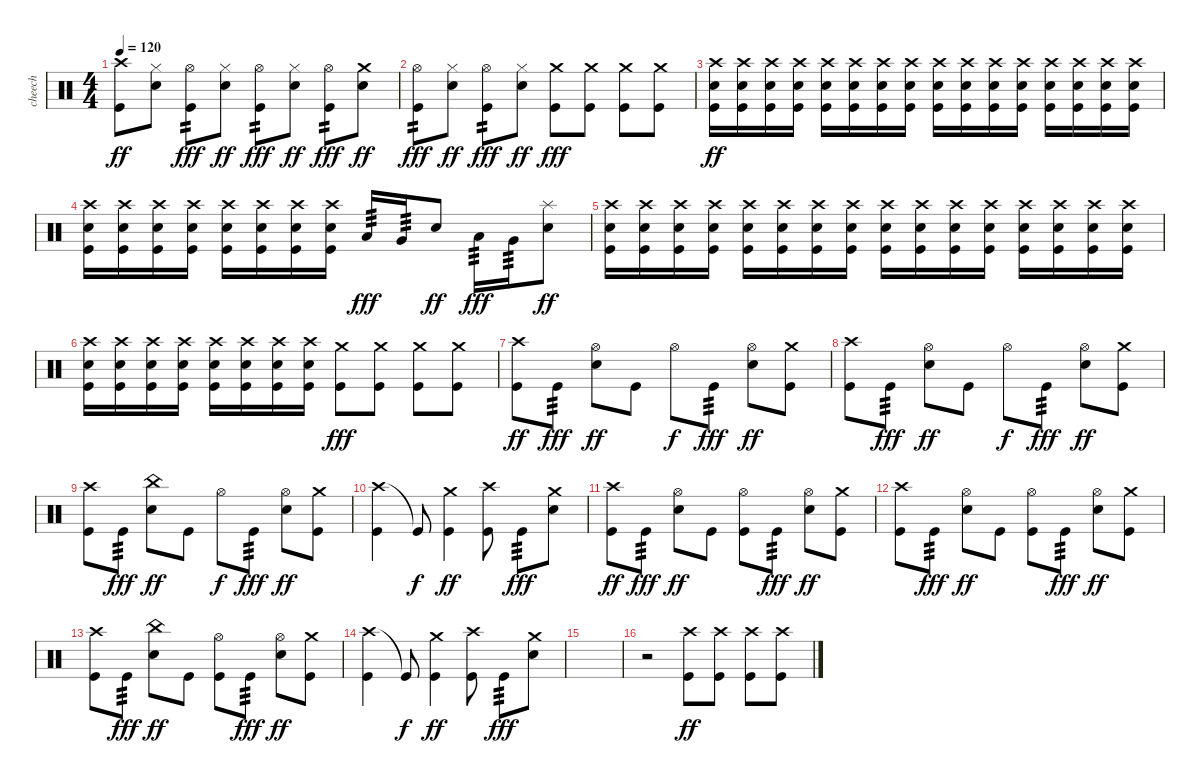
\track ("cheech" "cheech") {instrument percussion}
\staff {score}
\articulation defaults
\ts (4 4)
\tempo 120
\clef neutral
\ks c
("Crash high (hit)" "Kick (hit)").8{dy ff} ("Hi-Hat (closed)" "Electric Snare (hit)").8 ("Hi-Hat (open)" "Kick (hit)").8{tp 2 dy fff} ("Hi-Hat (closed)" "Electric Snare (hit)").8{dy ff} ("Hi-Hat (open)" "Kick (hit)").8{tp 2 dy fff} ("Hi-Hat (closed)" "Electric Snare (hit)").8{dy ff} ("Hi-Hat (open)" "Kick (hit)").8{tp 2 dy fff} ("Crash medium (hit)" "Electric Snare (hit)").8{dy ff} |
("Hi-Hat (open)" "Kick (hit)").8{tp 2 dy fff} ("Hi-Hat (closed)" "Electric Snare (hit)").8{dy ff} ("Hi-Hat (open)" "Kick (hit)").8{tp 2 dy fff} ("Hi-Hat (closed)" "Electric Snare (hit)").8{dy ff} ("Crash medium (hit)" "Kick (hit)").8{dy fff} ("Crash medium (hit)" "Kick (hit)").8 ("Crash medium (hit)" "Kick (hit)").8 ("Crash medium (hit)" "Kick (hit)").8 |
("Crash high (hit)" "Electric Snare (hit)" "Kick (hit)").16{dy ff} ("Crash high (hit)" "Electric Snare (hit)" "Kick (hit)").16 ("Crash high (hit)" "Electric Snare (hit)" "Kick (hit)").16 ("Crash high (hit)" "Electric Snare (hit)" "Kick (hit)").16 ("Crash high (hit)" "Electric Snare (hit)" "Kick (hit)").16 ("Crash high (hit)" "Electric Snare (hit)" "Kick (hit)").16 ("Crash high (hit)" "Electric Snare (hit)" "Kick (hit)").16 ("Crash high (hit)" "Electric Snare (hit)" "Kick (hit)").16 ("Crash high (hit)" "Electric Snare (hit)" "Kick (hit)").16 ("Crash high (hit)" "Electric Snare (hit)" "Kick (hit)").16 ("Crash high (hit)" "Electric Snare (hit)" "Kick (hit)").16 ("Crash high (hit)" "Electric Snare (hit)" "Kick (hit)").16 ("Crash high (hit)" "Electric Snare (hit)" "Kick (hit)").16 ("Crash high (hit)" "Electric Snare (hit)" "Kick (hit)").16 ("Crash high (hit)" "Electric Snare (hit)" "Kick (hit)").16 ("Crash high (hit)" "Electric Snare (hit)" "Kick (hit)").16 |
("Crash high (hit)" "Electric Snare (hit)" "Kick (hit)").16 ("Crash high (hit)" "Electric Snare (hit)" "Kick (hit)").16 ("Crash high (hit)" "Electric Snare (hit)" "Kick (hit)").16 ("Crash high (hit)" "Electric Snare (hit)" "Kick (hit)").16 ("Crash high (hit)" "Electric Snare (hit)" "Kick (hit)").16 ("Crash high (hit)" "Electric Snare (hit)" "Kick (hit)").16 ("Crash high (hit)" "Electric Snare (hit)" "Kick (hit)").16 ("Crash high (hit)" "Electric Snare (hit)" "Kick (hit)").16 "Low Tom (hit)".16{tp 3 dy fff} "Very Low Tom (hit)".16{tp 3} "Electric Snare (hit)".8{dy ff} "Low Tom (hit)".16{tp 3 dy fff} "Very Low Tom (hit)".16{tp 3} ("Splash (hit)" "Electric Snare (hit)").8{dy ff} |
("Crash high (hit)" "Electric Snare (hit)" "Kick (hit)").16 ("Crash high (hit)" "Electric Snare (hit)" "Kick (hit)").16 ("Crash high (hit)" "Electric Snare (hit)" "Kick (hit)").16 ("Crash high (hit)" "Electric Snare (hit)" "Kick (hit)").16 ("Crash high (hit)" "Electric Snare (hit)" "Kick (hit)").16 ("Crash high (hit)" "Electric Snare (hit)" "Kick (hit)").16 ("Crash high (hit)" "Electric Snare (hit)" "Kick (hit)").16 ("Crash high (hit)" "Electric Snare (hit)" "Kick (hit)").16 ("Crash high (hit)" "Electric Snare (hit)" "Kick (hit)").16 ("Crash high (hit)" "Electric Snare (hit)" "Kick (hit)").16 ("Crash high (hit)" "Electric Snare (hit)" "Kick (hit)").16 ("Crash high (hit)" "Electric Snare (hit)" "Kick (hit)").16 ("Crash high (hit)" "Electric Snare (hit)" "Kick (hit)").16 ("Crash high (hit)" "Electric Snare (hit)" "Kick (hit)").16 ("Crash high (hit)" "Electric Snare (hit)" "Kick (hit)").16 ("Crash high (hit)" "Electric Snare (hit)" "Kick (hit)").16 |
("Crash high (hit)" "Electric Snare (hit)" "Kick (hit)").16 ("Crash high (hit)" "Electric Snare (hit)" "Kick (hit)").16 ("Crash high (hit)" "Electric Snare (hit)" "Kick (hit)").16 ("Crash high (hit)" "Electric Snare (hit)" "Kick (hit)").16 ("Crash high (hit)" "Electric Snare (hit)" "Kick (hit)").16 ("Crash high (hit)" "Electric Snare (hit)" "Kick (hit)").16 ("Crash high (hit)" "Electric Snare (hit)" "Kick (hit)").16 ("Crash high (hit)" "Electric Snare (hit)" "Kick (hit)").16 ("Crash medium (hit)" "Kick (hit)").8{dy fff} ("Crash medium (hit)" "Kick (hit)").8 ("Crash medium (hit)" "Kick (hit)").8 ("Crash medium (hit)" "Kick (hit)").8 |
("Crash high (hit)" "Kick (hit)").8{dy ff} "Kick (hit)".8{tp 3 dy fff} ("Hi-Hat (open)" "Electric Snare (hit)").8{dy ff} "Kick (hit)".8 "Hi-Hat (open)".8{dy f} "Kick (hit)".8{tp 3 dy fff} ("Hi-Hat (open)" "Electric Snare (hit)").8{dy ff} ("Crash medium (hit)" "Kick (hit)").8 |
("Crash high (hit)" "Kick (hit)").8 "Kick (hit)".8{tp 3 dy fff} ("Hi-Hat (open)" "Electric Snare (hit)").8{dy ff} "Kick (hit)".8 "Hi-Hat (open)".8{dy f} "Kick (hit)".8{tp 3 dy fff} ("Hi-Hat (open)" "Electric Snare (hit)").8{dy ff} ("Crash medium (hit)" "Kick (hit)").8 |
("Crash high (hit)" "Kick (hit)").8 "Kick (hit)".8{tp 3 dy fff} ("China (hit)" "Electric Snare (hit)").8{dy ff} "Kick (hit)".8 "Hi-Hat (open)".8{dy f} "Kick (hit)".8{tp 3 dy fff} ("Hi-Hat (open)" "Electric Snare (hit)").8{dy ff} ("Crash medium (hit)" "Kick (hit)").8 |
("Crash high (hit)" "Kick (hit)").4 "Kick (hit)"{t}.8{dy f} ("Crash medium (hit)" "Kick (hit)").4{dy ff} ("Crash high (hit)" "Kick (hit)").8 "Kick (hit)".8{tp 3 dy fff} ("Crash medium (hit)" "Electric Snare (hit)").8 |
("Crash high (hit)" "Kick (hit)").8{dy ff} "Kick (hit)".8{tp 3 dy fff} ("Hi-Hat (open)" "Electric Snare (hit)").8{dy ff} "Kick (hit)".8 ("Hi-Hat (open)" "Kick (hit)").8 "Kick (hit)".8{tp 3 dy fff} ("Hi-Hat (open)" "Electric Snare (hit)").8{dy ff} ("Crash medium (hit)" "Kick (hit)").8 |
("Crash high (hit)" "Kick (hit)").8 "Kick (hit)".8{tp 3 dy fff} ("Hi-Hat (open)" "Electric Snare (hit)").8{dy ff} "Kick (hit)".8 ("Hi-Hat (open)" "Kick (hit)").8 "Kick (hit)".8{tp 3 dy fff} ("Hi-Hat (open)" "Electric Snare (hit)").8{dy ff} ("Crash medium (hit)" "Kick (hit)").8 |
("Crash high (hit)" "Kick (hit)").8 "Kick (hit)".8{tp 3 dy fff} ("China (hit)" "Electric Snare (hit)").8{dy ff} "Kick (hit)".8 ("Hi-Hat (open)" "Kick (hit)").8 "Kick (hit)".8{tp 3 dy fff} ("Hi-Hat (open)" "Electric Snare (hit)").8{dy ff} ("Crash medium (hit)" "Kick (hit)").8 |
("Crash high (hit)" "Kick (hit)").4 "Kick (hit)"{t}.8{dy f} ("Crash medium (hit)" "Kick (hit)").4{dy ff} ("Crash high (hit)" "Kick (hit)").8 "Kick (hit)".8{tp 3 dy fff} ("Crash medium (hit)" "Electric Snare (hit)").8 |
|
r.2 ("Crash high (hit)" "Kick (hit)").8{dy ff} ("Crash high (hit)" "Kick (hit)").8 ("Crash high (hit)" "Kick (hit)").8 ("Crash high (hit)" "Kick (hit)").8
